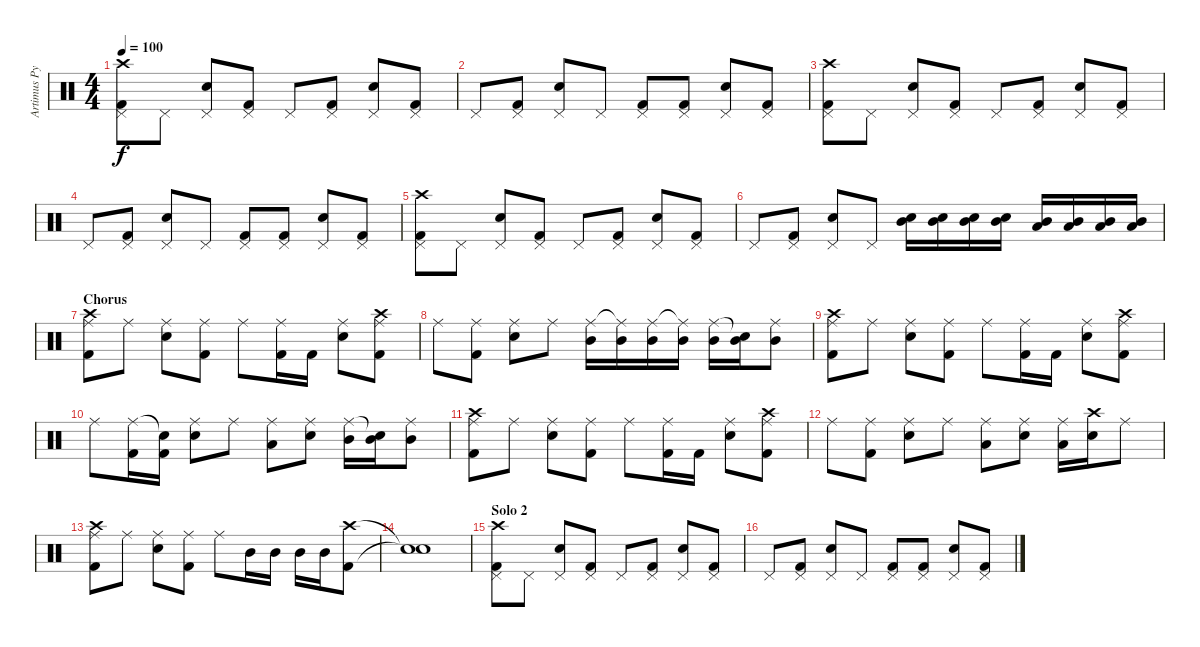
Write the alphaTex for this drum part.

\track ("Artimus Pyle " "Artimus Py") {instrument percussion}
\staff {score}
\articulation defaults
\ts (4 4)
\tempo 100
\clef neutral
\ks c
("Crash high (hit)" "Pedal Hi-Hat (hit)" "Kick (hit) 2").8{dy f} "Pedal Hi-Hat (hit)".8 ("Pedal Hi-Hat (hit)" "Electric Snare (hit)").8 ("Pedal Hi-Hat (hit)" "Kick (hit) 2").8 "Pedal Hi-Hat (hit)".8 ("Pedal Hi-Hat (hit)" "Kick (hit) 2").8 ("Pedal Hi-Hat (hit)" "Electric Snare (hit)").8 ("Pedal Hi-Hat (hit)" "Kick (hit) 2").8 |
"Pedal Hi-Hat (hit)".8 ("Pedal Hi-Hat (hit)" "Kick (hit) 2").8 ("Pedal Hi-Hat (hit)" "Electric Snare (hit)").8 "Pedal Hi-Hat (hit)".8 ("Pedal Hi-Hat (hit)" "Kick (hit) 2").8 ("Pedal Hi-Hat (hit)" "Kick (hit) 2").8 ("Pedal Hi-Hat (hit)" "Electric Snare (hit)").8 ("Pedal Hi-Hat (hit)" "Kick (hit) 2").8 |
("Crash high (hit)" "Pedal Hi-Hat (hit)" "Kick (hit) 2").8 "Pedal Hi-Hat (hit)".8 ("Pedal Hi-Hat (hit)" "Electric Snare (hit)").8 ("Pedal Hi-Hat (hit)" "Kick (hit) 2").8 "Pedal Hi-Hat (hit)".8 ("Pedal Hi-Hat (hit)" "Kick (hit) 2").8 ("Pedal Hi-Hat (hit)" "Electric Snare (hit)").8 ("Pedal Hi-Hat (hit)" "Kick (hit) 2").8 |
"Pedal Hi-Hat (hit)".8 ("Pedal Hi-Hat (hit)" "Kick (hit) 2").8 ("Pedal Hi-Hat (hit)" "Electric Snare (hit)").8 "Pedal Hi-Hat (hit)".8 ("Pedal Hi-Hat (hit)" "Kick (hit) 2").8 ("Pedal Hi-Hat (hit)" "Kick (hit) 2").8 ("Pedal Hi-Hat (hit)" "Electric Snare (hit)").8 ("Pedal Hi-Hat (hit)" "Kick (hit) 2").8 |
("Crash high (hit)" "Pedal Hi-Hat (hit)" "Kick (hit) 2").8 "Pedal Hi-Hat (hit)".8 ("Pedal Hi-Hat (hit)" "Electric Snare (hit)").8 ("Pedal Hi-Hat (hit)" "Kick (hit) 2").8 "Pedal Hi-Hat (hit)".8 ("Pedal Hi-Hat (hit)" "Kick (hit) 2").8 ("Pedal Hi-Hat (hit)" "Electric Snare (hit)").8 ("Pedal Hi-Hat (hit)" "Kick (hit) 2").8 |
"Pedal Hi-Hat (hit)".8 ("Pedal Hi-Hat (hit)" "Kick (hit) 2").8 ("Pedal Hi-Hat (hit)" "Electric Snare (hit)").8 "Pedal Hi-Hat (hit)".8 ("Electric Snare (hit)" "Mid Tom (hit)").16 ("Electric Snare (hit)" "Mid Tom (hit)").16 ("Electric Snare (hit)" "Mid Tom (hit)").16 ("Electric Snare (hit)" "Mid Tom (hit)").16 ("Low Tom (hit)" "Mid Tom (hit)").16 ("Low Tom (hit)" "Mid Tom (hit)").16 ("Low Tom (hit)" "Mid Tom (hit)").16 ("Low Tom (hit)" "Mid Tom (hit)").16 |
\section ("" "Chorus")
("Crash high (hit)" "Ride (middle)" "Kick (hit) 2").8 "Ride (middle)".8 ("Ride (middle)" "Electric Snare (hit)").8 ("Ride (middle)" "Kick (hit) 2").8 "Ride (middle)".8 ("Ride (middle)" "Kick (hit) 2").16 "Kick (hit) 2".16 ("Ride (middle)" "Electric Snare (hit)").8 ("Crash high (hit)" "Ride (middle)" "Kick (hit) 2").8 |
"Ride (middle)".8 ("Ride (middle)" "Kick (hit) 2").8 ("Ride (middle)" "Electric Snare (hit)").8 "Ride (middle)".8 ("Ride (middle)" "Mid Tom (hit)").16 ("Ride (middle)"{t} "Mid Tom (hit)").16 ("Ride (middle)" "Mid Tom (hit)").16 ("Ride (middle)"{t} "Mid Tom (hit)").16 ("Ride (middle)" "Mid Tom (hit)").16 ("Snare (hit)"{t} "Mid Tom (hit)").16 ("Ride (middle)" "Mid Tom (hit)").8 |
("Crash high (hit)" "Ride (middle)" "Kick (hit) 2").8 "Ride (middle)".8 ("Ride (middle)" "Electric Snare (hit)").8 ("Ride (middle)" "Kick (hit) 2").8 "Ride (middle)".8 ("Ride (middle)" "Kick (hit) 2").16 "Kick (hit) 2".16 ("Ride (middle)" "Electric Snare (hit)").8 ("Crash high (hit)" "Ride (middle)" "Kick (hit) 2").8 |
"Ride (middle)".8 ("Ride (middle)" "Kick (hit) 2").16 ("Snare (hit)"{t} "Kick (hit) 2").16 ("Ride (middle)" "Electric Snare (hit)").8 "Ride (middle)".8 ("Ride (middle)" "Low Tom (hit)").8 ("Ride (middle)" "Electric Snare (hit)").8 ("Ride (middle)" "Mid Tom (hit)").16 ("Snare (hit)"{t} "Mid Tom (hit)").16 ("Ride (middle)" "Mid Tom (hit)").8 |
("Crash high (hit)" "Ride (middle)" "Kick (hit) 2").8 "Ride (middle)".8 ("Ride (middle)" "Electric Snare (hit)").8 ("Ride (middle)" "Kick (hit) 2").8 "Ride (middle)".8 ("Ride (middle)" "Kick (hit) 2").16 "Kick (hit) 2".16 ("Ride (middle)" "Electric Snare (hit)").8 ("Crash high (hit)" "Ride (middle)" "Kick (hit) 2").8 |
"Ride (middle)".8 ("Ride (middle)" "Kick (hit) 2").8 ("Ride (middle)" "Electric Snare (hit)").8 "Ride (middle)".8 ("Ride (middle)" "Low Tom (hit)").8 ("Ride (middle)" "Electric Snare (hit)").8 ("Ride (middle)" "Low Tom (hit)").16 ("Crash high (hit)" "Electric Snare (hit)").16 "Ride (middle)".8 |
("Crash high (hit)" "Ride (middle)" "Kick (hit) 2").8 "Ride (middle)".8 ("Ride (middle)" "Electric Snare (hit)").8 ("Ride (middle)" "Kick (hit) 2").8 "Ride (middle)".8 "Mid Tom (hit)".16 "Mid Tom (hit)".16 "Mid Tom (hit)".16 "Mid Tom (hit)".16 ("Crash high (hit)" "Kick (hit) 2").8 |
("Snare (hit)"{t} "Snare (hit)"{t}).1 |
\section ("" "Solo 2")
("Crash high (hit)" "Pedal Hi-Hat (hit)" "Kick (hit) 2").8 "Pedal Hi-Hat (hit)".8 ("Pedal Hi-Hat (hit)" "Electric Snare (hit)").8 ("Pedal Hi-Hat (hit)" "Kick (hit) 2").8 "Pedal Hi-Hat (hit)".8 ("Pedal Hi-Hat (hit)" "Kick (hit) 2").8 ("Pedal Hi-Hat (hit)" "Electric Snare (hit)").8 ("Pedal Hi-Hat (hit)" "Kick (hit) 2").8 |
"Pedal Hi-Hat (hit)".8 ("Pedal Hi-Hat (hit)" "Kick (hit) 2").8 ("Pedal Hi-Hat (hit)" "Electric Snare (hit)").8 "Pedal Hi-Hat (hit)".8 ("Pedal Hi-Hat (hit)" "Kick (hit) 2").8 ("Pedal Hi-Hat (hit)" "Kick (hit) 2").8 ("Pedal Hi-Hat (hit)" "Electric Snare (hit)").8 ("Pedal Hi-Hat (hit)" "Kick (hit) 2").8
